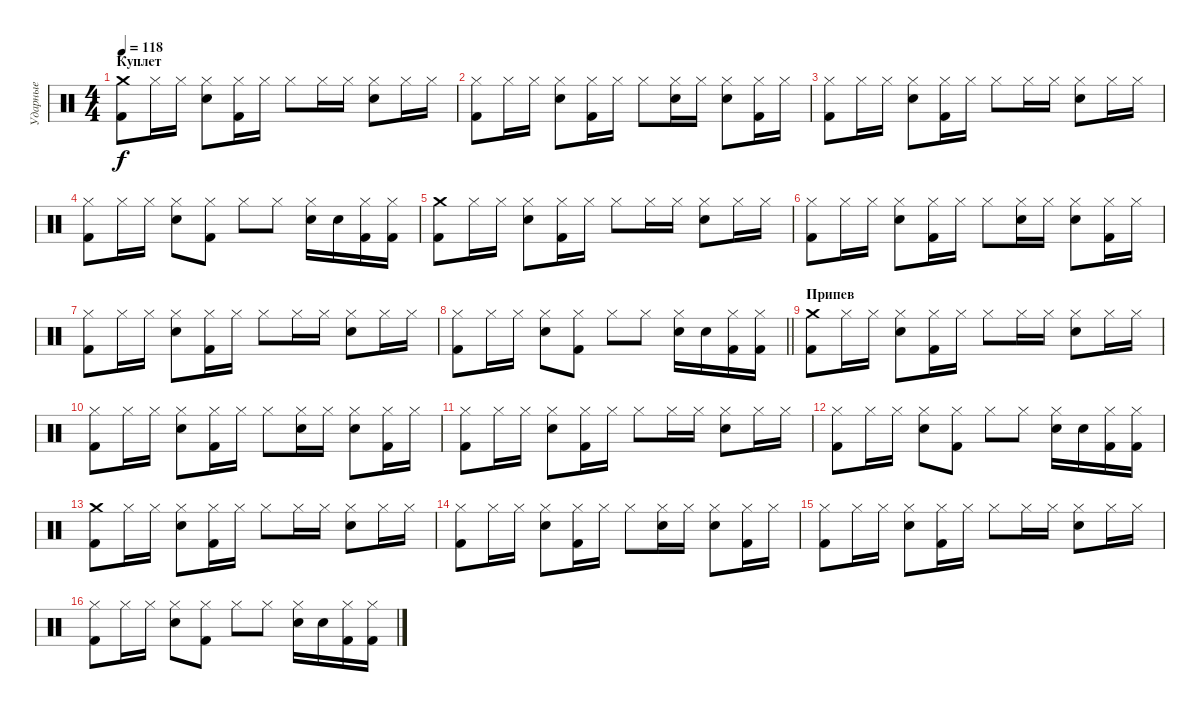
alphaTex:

\track ("Ударные" "Ударные") {instrument percussion}
\staff {score}
\articulation defaults
\ts (4 4)
\section ("" "Куплет")
\tempo 118
\clef neutral
\ks c
("Crash medium (hit)" "Kick (hit) 2").8{dy f} "Hi-Hat (closed)".16 "Hi-Hat (closed)".16 ("Hi-Hat (closed)" "Electric Snare (hit)").8 ("Hi-Hat (closed)" "Kick (hit) 2").16 "Hi-Hat (closed)".16 "Hi-Hat (closed)".8 "Hi-Hat (closed)".16 "Hi-Hat (closed)".16 ("Hi-Hat (closed)" "Electric Snare (hit)").8 "Hi-Hat (closed)".16 "Hi-Hat (closed)".16 |
("Hi-Hat (closed)" "Kick (hit) 2").8 "Hi-Hat (closed)".16 "Hi-Hat (closed)".16 ("Hi-Hat (closed)" "Electric Snare (hit)").8 ("Hi-Hat (closed)" "Kick (hit) 2").16 "Hi-Hat (closed)".16 "Hi-Hat (closed)".8 ("Hi-Hat (closed)" "Electric Snare (hit)").16 "Hi-Hat (closed)".16 ("Hi-Hat (closed)" "Electric Snare (hit)").8 ("Hi-Hat (closed)" "Kick (hit) 2").16 "Hi-Hat (closed)".16 |
("Hi-Hat (closed)" "Kick (hit) 2").8 "Hi-Hat (closed)".16 "Hi-Hat (closed)".16 ("Hi-Hat (closed)" "Electric Snare (hit)").8 ("Hi-Hat (closed)" "Kick (hit) 2").16 "Hi-Hat (closed)".16 "Hi-Hat (closed)".8 "Hi-Hat (closed)".16 "Hi-Hat (closed)".16 ("Hi-Hat (closed)" "Electric Snare (hit)").8 "Hi-Hat (closed)".16 "Hi-Hat (closed)".16 |
("Hi-Hat (closed)" "Kick (hit) 2").8 "Hi-Hat (closed)".16 "Hi-Hat (closed)".16 ("Hi-Hat (closed)" "Electric Snare (hit)").8 ("Hi-Hat (closed)" "Kick (hit) 2").8 "Hi-Hat (closed)".8 "Hi-Hat (closed)".8 ("Hi-Hat (closed)" "Electric Snare (hit)").16 "Electric Snare (hit)".16 ("Hi-Hat (closed)" "Kick (hit) 2").16 ("Hi-Hat (closed)" "Kick (hit) 2").16 |
("Crash medium (hit)" "Kick (hit) 2").8 "Hi-Hat (closed)".16 "Hi-Hat (closed)".16 ("Hi-Hat (closed)" "Electric Snare (hit)").8 ("Hi-Hat (closed)" "Kick (hit) 2").16 "Hi-Hat (closed)".16 "Hi-Hat (closed)".8 "Hi-Hat (closed)".16 "Hi-Hat (closed)".16 ("Hi-Hat (closed)" "Electric Snare (hit)").8 "Hi-Hat (closed)".16 "Hi-Hat (closed)".16 |
("Hi-Hat (closed)" "Kick (hit) 2").8 "Hi-Hat (closed)".16 "Hi-Hat (closed)".16 ("Hi-Hat (closed)" "Electric Snare (hit)").8 ("Hi-Hat (closed)" "Kick (hit) 2").16 "Hi-Hat (closed)".16 "Hi-Hat (closed)".8 ("Hi-Hat (closed)" "Electric Snare (hit)").16 "Hi-Hat (closed)".16 ("Hi-Hat (closed)" "Electric Snare (hit)").8 ("Hi-Hat (closed)" "Kick (hit) 2").16 "Hi-Hat (closed)".16 |
("Hi-Hat (closed)" "Kick (hit) 2").8 "Hi-Hat (closed)".16 "Hi-Hat (closed)".16 ("Hi-Hat (closed)" "Electric Snare (hit)").8 ("Hi-Hat (closed)" "Kick (hit) 2").16 "Hi-Hat (closed)".16 "Hi-Hat (closed)".8 "Hi-Hat (closed)".16 "Hi-Hat (closed)".16 ("Hi-Hat (closed)" "Electric Snare (hit)").8 "Hi-Hat (closed)".16 "Hi-Hat (closed)".16 |
\barLineRight lightlight
("Hi-Hat (closed)" "Kick (hit) 2").8 "Hi-Hat (closed)".16 "Hi-Hat (closed)".16 ("Hi-Hat (closed)" "Electric Snare (hit)").8 ("Hi-Hat (closed)" "Kick (hit) 2").8 "Hi-Hat (closed)".8 "Hi-Hat (closed)".8 ("Hi-Hat (closed)" "Electric Snare (hit)").16 "Electric Snare (hit)".16 ("Hi-Hat (closed)" "Kick (hit) 2").16 ("Hi-Hat (closed)" "Kick (hit) 2").16 |
\section ("" "Припев")
("Crash medium (hit)" "Kick (hit) 2").8 "Hi-Hat (closed)".16 "Hi-Hat (closed)".16 ("Hi-Hat (closed)" "Electric Snare (hit)").8 ("Hi-Hat (closed)" "Kick (hit) 2").16 "Hi-Hat (closed)".16 "Hi-Hat (closed)".8 "Hi-Hat (closed)".16 "Hi-Hat (closed)".16 ("Hi-Hat (closed)" "Electric Snare (hit)").8 "Hi-Hat (closed)".16 "Hi-Hat (closed)".16 |
("Hi-Hat (closed)" "Kick (hit) 2").8 "Hi-Hat (closed)".16 "Hi-Hat (closed)".16 ("Hi-Hat (closed)" "Electric Snare (hit)").8 ("Hi-Hat (closed)" "Kick (hit) 2").16 "Hi-Hat (closed)".16 "Hi-Hat (closed)".8 ("Hi-Hat (closed)" "Electric Snare (hit)").16 "Hi-Hat (closed)".16 ("Hi-Hat (closed)" "Electric Snare (hit)").8 ("Hi-Hat (closed)" "Kick (hit) 2").16 "Hi-Hat (closed)".16 |
("Hi-Hat (closed)" "Kick (hit) 2").8 "Hi-Hat (closed)".16 "Hi-Hat (closed)".16 ("Hi-Hat (closed)" "Electric Snare (hit)").8 ("Hi-Hat (closed)" "Kick (hit) 2").16 "Hi-Hat (closed)".16 "Hi-Hat (closed)".8 "Hi-Hat (closed)".16 "Hi-Hat (closed)".16 ("Hi-Hat (closed)" "Electric Snare (hit)").8 "Hi-Hat (closed)".16 "Hi-Hat (closed)".16 |
("Hi-Hat (closed)" "Kick (hit) 2").8 "Hi-Hat (closed)".16 "Hi-Hat (closed)".16 ("Hi-Hat (closed)" "Electric Snare (hit)").8 ("Hi-Hat (closed)" "Kick (hit) 2").8 "Hi-Hat (closed)".8 "Hi-Hat (closed)".8 ("Hi-Hat (closed)" "Electric Snare (hit)").16 "Electric Snare (hit)".16 ("Hi-Hat (closed)" "Kick (hit) 2").16 ("Hi-Hat (closed)" "Kick (hit) 2").16 |
("Crash medium (hit)" "Kick (hit) 2").8 "Hi-Hat (closed)".16 "Hi-Hat (closed)".16 ("Hi-Hat (closed)" "Electric Snare (hit)").8 ("Hi-Hat (closed)" "Kick (hit) 2").16 "Hi-Hat (closed)".16 "Hi-Hat (closed)".8 "Hi-Hat (closed)".16 "Hi-Hat (closed)".16 ("Hi-Hat (closed)" "Electric Snare (hit)").8 "Hi-Hat (closed)".16 "Hi-Hat (closed)".16 |
("Hi-Hat (closed)" "Kick (hit) 2").8 "Hi-Hat (closed)".16 "Hi-Hat (closed)".16 ("Hi-Hat (closed)" "Electric Snare (hit)").8 ("Hi-Hat (closed)" "Kick (hit) 2").16 "Hi-Hat (closed)".16 "Hi-Hat (closed)".8 ("Hi-Hat (closed)" "Electric Snare (hit)").16 "Hi-Hat (closed)".16 ("Hi-Hat (closed)" "Electric Snare (hit)").8 ("Hi-Hat (closed)" "Kick (hit) 2").16 "Hi-Hat (closed)".16 |
("Hi-Hat (closed)" "Kick (hit) 2").8 "Hi-Hat (closed)".16 "Hi-Hat (closed)".16 ("Hi-Hat (closed)" "Electric Snare (hit)").8 ("Hi-Hat (closed)" "Kick (hit) 2").16 "Hi-Hat (closed)".16 "Hi-Hat (closed)".8 "Hi-Hat (closed)".16 "Hi-Hat (closed)".16 ("Hi-Hat (closed)" "Electric Snare (hit)").8 "Hi-Hat (closed)".16 "Hi-Hat (closed)".16 |
("Hi-Hat (closed)" "Kick (hit) 2").8 "Hi-Hat (closed)".16 "Hi-Hat (closed)".16 ("Hi-Hat (closed)" "Electric Snare (hit)").8 ("Hi-Hat (closed)" "Kick (hit) 2").8 "Hi-Hat (closed)".8 "Hi-Hat (closed)".8 ("Hi-Hat (closed)" "Electric Snare (hit)").16 "Electric Snare (hit)".16 ("Hi-Hat (closed)" "Kick (hit) 2").16 ("Hi-Hat (closed)" "Kick (hit) 2").16
